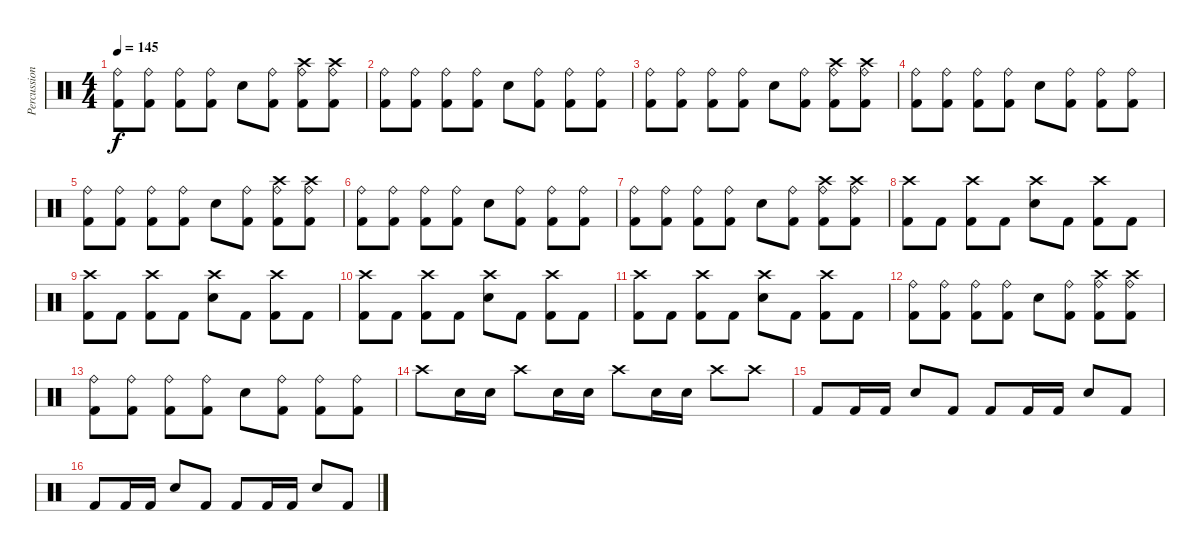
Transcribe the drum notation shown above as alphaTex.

\track ("Percussion" "Percussion") {instrument percussion}
\staff {score}
\articulation defaults
\ts (4 4)
\tempo 145
\clef neutral
\ks c
("Ride (bell)" "Kick (hit) 2").8{dy f} ("Ride (bell)" "Kick (hit) 2").8 ("Ride (bell)" "Kick (hit) 2").8 ("Ride (bell)" "Kick (hit) 2").8 "Snare (hit) 2".8 ("Ride (bell)" "Kick (hit) 2").8 ("Crash high (hit)" "Ride (bell)" "Kick (hit) 2").8 ("Crash high (hit)" "Ride (bell)" "Kick (hit) 2").8 |
("Ride (bell)" "Kick (hit) 2").8 ("Ride (bell)" "Kick (hit) 2").8 ("Ride (bell)" "Kick (hit) 2").8 ("Ride (bell)" "Kick (hit) 2").8 "Snare (hit) 2".8 ("Ride (bell)" "Kick (hit) 2").8 ("Ride (bell)" "Kick (hit) 2").8 ("Ride (bell)" "Kick (hit) 2").8 |
("Ride (bell)" "Kick (hit) 2").8 ("Ride (bell)" "Kick (hit) 2").8 ("Ride (bell)" "Kick (hit) 2").8 ("Ride (bell)" "Kick (hit) 2").8 "Snare (hit) 2".8 ("Ride (bell)" "Kick (hit) 2").8 ("Crash high (hit)" "Ride (bell)" "Kick (hit) 2").8 ("Crash high (hit)" "Ride (bell)" "Kick (hit) 2").8 |
("Ride (bell)" "Kick (hit) 2").8 ("Ride (bell)" "Kick (hit) 2").8 ("Ride (bell)" "Kick (hit) 2").8 ("Ride (bell)" "Kick (hit) 2").8 "Snare (hit) 2".8 ("Ride (bell)" "Kick (hit) 2").8 ("Ride (bell)" "Kick (hit) 2").8 ("Ride (bell)" "Kick (hit) 2").8 |
("Ride (bell)" "Kick (hit) 2").8 ("Ride (bell)" "Kick (hit) 2").8 ("Ride (bell)" "Kick (hit) 2").8 ("Ride (bell)" "Kick (hit) 2").8 "Snare (hit) 2".8 ("Ride (bell)" "Kick (hit) 2").8 ("Crash high (hit)" "Ride (bell)" "Kick (hit) 2").8 ("Crash high (hit)" "Ride (bell)" "Kick (hit) 2").8 |
("Ride (bell)" "Kick (hit) 2").8 ("Ride (bell)" "Kick (hit) 2").8 ("Ride (bell)" "Kick (hit) 2").8 ("Ride (bell)" "Kick (hit) 2").8 "Snare (hit) 2".8 ("Ride (bell)" "Kick (hit) 2").8 ("Ride (bell)" "Kick (hit) 2").8 ("Ride (bell)" "Kick (hit) 2").8 |
("Ride (bell)" "Kick (hit) 2").8 ("Ride (bell)" "Kick (hit) 2").8 ("Ride (bell)" "Kick (hit) 2").8 ("Ride (bell)" "Kick (hit) 2").8 "Snare (hit) 2".8 ("Ride (bell)" "Kick (hit) 2").8 ("Crash high (hit)" "Ride (bell)" "Kick (hit) 2").8 ("Crash high (hit)" "Ride (bell)" "Kick (hit) 2").8 |
("Crash high (hit)" "Kick (hit) 2").8 "Kick (hit) 2".8 ("Crash high (hit)" "Kick (hit) 2").8 "Kick (hit) 2".8 ("Crash high (hit)" "Snare (hit) 2").8 "Kick (hit) 2".8 ("Crash high (hit)" "Kick (hit) 2").8 "Kick (hit) 2".8 |
("Crash high (hit)" "Kick (hit) 2").8 "Kick (hit) 2".8 ("Crash high (hit)" "Kick (hit) 2").8 "Kick (hit) 2".8 ("Crash high (hit)" "Snare (hit) 2").8 "Kick (hit) 2".8 ("Crash high (hit)" "Kick (hit) 2").8 "Kick (hit) 2".8 |
("Crash high (hit)" "Kick (hit) 2").8 "Kick (hit) 2".8 ("Crash high (hit)" "Kick (hit) 2").8 "Kick (hit) 2".8 ("Crash high (hit)" "Snare (hit) 2").8 "Kick (hit) 2".8 ("Crash high (hit)" "Kick (hit) 2").8 "Kick (hit) 2".8 |
("Crash high (hit)" "Kick (hit) 2").8 "Kick (hit) 2".8 ("Crash high (hit)" "Kick (hit) 2").8 "Kick (hit) 2".8 ("Crash high (hit)" "Snare (hit) 2").8 "Kick (hit) 2".8 ("Crash high (hit)" "Kick (hit) 2").8 "Kick (hit) 2".8 |
("Ride (bell)" "Kick (hit) 2").8 ("Ride (bell)" "Kick (hit) 2").8 ("Ride (bell)" "Kick (hit) 2").8 ("Ride (bell)" "Kick (hit) 2").8 "Snare (hit) 2".8 ("Ride (bell)" "Kick (hit) 2").8 ("Crash high (hit)" "Ride (bell)" "Kick (hit) 2").8 ("Crash high (hit)" "Ride (bell)" "Kick (hit) 2").8 |
("Ride (bell)" "Kick (hit) 2").8 ("Ride (bell)" "Kick (hit) 2").8 ("Ride (bell)" "Kick (hit) 2").8 ("Ride (bell)" "Kick (hit) 2").8 "Snare (hit) 2".8 ("Ride (bell)" "Kick (hit) 2").8 ("Ride (bell)" "Kick (hit) 2").8 ("Ride (bell)" "Kick (hit) 2").8 |
"Crash high (hit)".8 "Snare (hit) 2".16 "Snare (hit) 2".16 "Crash high (hit)".8 "Snare (hit) 2".16 "Snare (hit) 2".16 "Crash high (hit)".8 "Snare (hit) 2".16 "Snare (hit) 2".16 "Crash high (hit)".8 "Crash high (hit)".8 |
"Kick (hit) 2".8 "Kick (hit) 2".16 "Kick (hit) 2".16 "Snare (hit) 2".8 "Kick (hit) 2".8 "Kick (hit) 2".8 "Kick (hit) 2".16 "Kick (hit) 2".16 "Snare (hit) 2".8 "Kick (hit) 2".8 |
"Kick (hit) 2".8 "Kick (hit) 2".16 "Kick (hit) 2".16 "Snare (hit) 2".8 "Kick (hit) 2".8 "Kick (hit) 2".8 "Kick (hit) 2".16 "Kick (hit) 2".16 "Snare (hit) 2".8 "Kick (hit) 2".8
